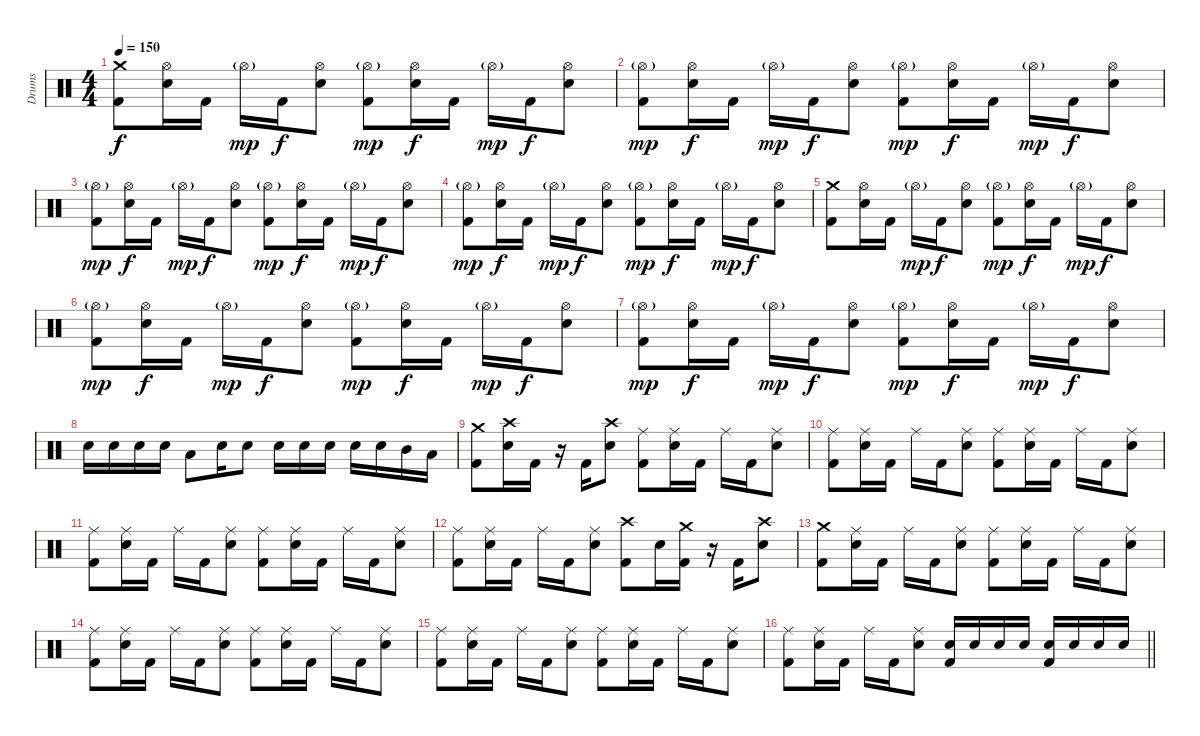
\track ("Drums" "Drums") {instrument percussion}
\staff {score}
\articulation defaults
\ts (4 4)
\tempo 150
\clef neutral
\ks c
("Crash medium (hit)" "Kick (hit) 2").8{dy f} ("Hi-Hat (open)" "Electric Snare (hit)").16 "Kick (hit) 2".16 "Hi-Hat (open)"{g}.16{dy mp} "Kick (hit) 2".16{dy f} ("Hi-Hat (open)" "Electric Snare (hit)").8 ("Hi-Hat (open)"{g} "Kick (hit) 2").8{dy mp} ("Hi-Hat (open)" "Electric Snare (hit)").16{dy f} "Kick (hit) 2".16 "Hi-Hat (open)"{g}.16{dy mp} "Kick (hit) 2".16{dy f} ("Hi-Hat (open)" "Electric Snare (hit)").8 |
("Hi-Hat (open)"{g} "Kick (hit) 2").8{dy mp} ("Hi-Hat (open)" "Electric Snare (hit)").16{dy f} "Kick (hit) 2".16 "Hi-Hat (open)"{g}.16{dy mp} "Kick (hit) 2".16{dy f} ("Hi-Hat (open)" "Electric Snare (hit)").8 ("Hi-Hat (open)"{g} "Kick (hit) 2").8{dy mp} ("Hi-Hat (open)" "Electric Snare (hit)").16{dy f} "Kick (hit) 2".16 "Hi-Hat (open)"{g}.16{dy mp} "Kick (hit) 2".16{dy f} ("Hi-Hat (open)" "Electric Snare (hit)").8 |
("Hi-Hat (open)"{g} "Kick (hit) 2").8{dy mp} ("Hi-Hat (open)" "Electric Snare (hit)").16{dy f} "Kick (hit) 2".16 "Hi-Hat (open)"{g}.16{dy mp} "Kick (hit) 2".16{dy f} ("Hi-Hat (open)" "Electric Snare (hit)").8 ("Hi-Hat (open)"{g} "Kick (hit) 2").8{dy mp} ("Hi-Hat (open)" "Electric Snare (hit)").16{dy f} "Kick (hit) 2".16 "Hi-Hat (open)"{g}.16{dy mp} "Kick (hit) 2".16{dy f} ("Hi-Hat (open)" "Electric Snare (hit)").8 |
("Hi-Hat (open)"{g} "Kick (hit) 2").8{dy mp} ("Hi-Hat (open)" "Electric Snare (hit)").16{dy f} "Kick (hit) 2".16 "Hi-Hat (open)"{g}.16{dy mp} "Kick (hit) 2".16{dy f} ("Hi-Hat (open)" "Electric Snare (hit)").8 ("Hi-Hat (open)"{g} "Kick (hit) 2").8{dy mp} ("Hi-Hat (open)" "Electric Snare (hit)").16{dy f} "Kick (hit) 2".16 "Hi-Hat (open)"{g}.16{dy mp} "Kick (hit) 2".16{dy f} ("Hi-Hat (open)" "Electric Snare (hit)").8 |
("Crash medium (hit)" "Kick (hit) 2").8 ("Hi-Hat (open)" "Electric Snare (hit)").16 "Kick (hit) 2".16 "Hi-Hat (open)"{g}.16{dy mp} "Kick (hit) 2".16{dy f} ("Hi-Hat (open)" "Electric Snare (hit)").8 ("Hi-Hat (open)"{g} "Kick (hit) 2").8{dy mp} ("Hi-Hat (open)" "Electric Snare (hit)").16{dy f} "Kick (hit) 2".16 "Hi-Hat (open)"{g}.16{dy mp} "Kick (hit) 2".16{dy f} ("Hi-Hat (open)" "Electric Snare (hit)").8 |
("Hi-Hat (open)"{g} "Kick (hit) 2").8{dy mp} ("Hi-Hat (open)" "Electric Snare (hit)").16{dy f} "Kick (hit) 2".16 "Hi-Hat (open)"{g}.16{dy mp} "Kick (hit) 2".16{dy f} ("Hi-Hat (open)" "Electric Snare (hit)").8 ("Hi-Hat (open)"{g} "Kick (hit) 2").8{dy mp} ("Hi-Hat (open)" "Electric Snare (hit)").16{dy f} "Kick (hit) 2".16 "Hi-Hat (open)"{g}.16{dy mp} "Kick (hit) 2".16{dy f} ("Hi-Hat (open)" "Electric Snare (hit)").8 |
("Hi-Hat (open)"{g} "Kick (hit) 2").8{dy mp} ("Hi-Hat (open)" "Electric Snare (hit)").16{dy f} "Kick (hit) 2".16 "Hi-Hat (open)"{g}.16{dy mp} "Kick (hit) 2".16{dy f} ("Hi-Hat (open)" "Electric Snare (hit)").8 ("Hi-Hat (open)"{g} "Kick (hit) 2").8{dy mp} ("Hi-Hat (open)" "Electric Snare (hit)").16{dy f} "Kick (hit) 2".16 "Hi-Hat (open)"{g}.16{dy mp} "Kick (hit) 2".16{dy f} ("Hi-Hat (open)" "Electric Snare (hit)").8 |
"Electric Snare (hit)".16 "Electric Snare (hit)".16 "Electric Snare (hit)".16 "Electric Snare (hit)".16 "Low Tom (hit)".8 "Electric Snare (hit)".16 "Electric Snare (hit)".8 "Electric Snare (hit)".16 "Electric Snare (hit)".16 "Electric Snare (hit)".16 "Electric Snare (hit)".16 "Electric Snare (hit)".16 "Mid Tom (hit)".16 "Low Tom (hit)".16 |
("Crash medium (hit)" "Kick (hit) 2").8 ("Crash high (hit)" "Electric Snare (hit)").16 "Kick (hit) 2".16 r.16 "Kick (hit) 2".16 ("Crash high (hit)" "Electric Snare (hit)").8 ("Ride (middle)" "Kick (hit) 2").8 ("Ride (middle)" "Electric Snare (hit)").16 "Kick (hit) 2".16 "Ride (middle)".16 "Kick (hit) 2".16 ("Ride (middle)" "Electric Snare (hit)").8 |
("Ride (middle)" "Kick (hit) 2").8 ("Ride (middle)" "Electric Snare (hit)").16 "Kick (hit) 2".16 "Ride (middle)".16 "Kick (hit) 2".16 ("Ride (middle)" "Electric Snare (hit)").8 ("Ride (middle)" "Kick (hit) 2").8 ("Ride (middle)" "Electric Snare (hit)").16 "Kick (hit) 2".16 "Ride (middle)".16 "Kick (hit) 2".16 ("Ride (middle)" "Electric Snare (hit)").8 |
("Ride (middle)" "Kick (hit) 2").8 ("Ride (middle)" "Electric Snare (hit)").16 "Kick (hit) 2".16 "Ride (middle)".16 "Kick (hit) 2".16 ("Ride (middle)" "Electric Snare (hit)").8 ("Ride (middle)" "Kick (hit) 2").8 ("Ride (middle)" "Electric Snare (hit)").16 "Kick (hit) 2".16 "Ride (middle)".16 "Kick (hit) 2".16 ("Ride (middle)" "Electric Snare (hit)").8 |
("Ride (middle)" "Kick (hit) 2").8 ("Ride (middle)" "Electric Snare (hit)").16 "Kick (hit) 2".16 "Ride (middle)".16 "Kick (hit) 2".16 ("Ride (middle)" "Electric Snare (hit)").8 ("Crash high (hit)" "Kick (hit) 2").8 "Electric Snare (hit)".16 ("Crash medium (hit)" "Kick (hit) 2").16 r.16 "Kick (hit) 2".16 ("Crash high (hit)" "Electric Snare (hit)").8 |
("Crash medium (hit)" "Kick (hit) 2").8 ("Ride (middle)" "Electric Snare (hit)").16 "Kick (hit) 2".16 "Ride (middle)".16 "Kick (hit) 2".16 ("Ride (middle)" "Electric Snare (hit)").8 ("Ride (middle)" "Kick (hit) 2").8 ("Ride (middle)" "Electric Snare (hit)").16 "Kick (hit) 2".16 "Ride (middle)".16 "Kick (hit) 2".16 ("Ride (middle)" "Electric Snare (hit)").8 |
("Ride (middle)" "Kick (hit) 2").8 ("Ride (middle)" "Electric Snare (hit)").16 "Kick (hit) 2".16 "Ride (middle)".16 "Kick (hit) 2".16 ("Ride (middle)" "Electric Snare (hit)").8 ("Ride (middle)" "Kick (hit) 2").8 ("Ride (middle)" "Electric Snare (hit)").16 "Kick (hit) 2".16 "Ride (middle)".16 "Kick (hit) 2".16 ("Ride (middle)" "Electric Snare (hit)").8 |
("Ride (middle)" "Kick (hit) 2").8 ("Ride (middle)" "Electric Snare (hit)").16 "Kick (hit) 2".16 "Ride (middle)".16 "Kick (hit) 2".16 ("Ride (middle)" "Electric Snare (hit)").8 ("Ride (middle)" "Kick (hit) 2").8 ("Ride (middle)" "Electric Snare (hit)").16 "Kick (hit) 2".16 "Ride (middle)".16 "Kick (hit) 2".16 ("Ride (middle)" "Electric Snare (hit)").8 |
\barLineRight lightlight
("Ride (middle)" "Kick (hit) 2").8 ("Ride (middle)" "Electric Snare (hit)").16 "Kick (hit) 2".16 "Ride (middle)".16 "Kick (hit) 2".16 ("Ride (middle)" "Electric Snare (hit)").8 ("Electric Snare (hit)" "Kick (hit) 2").16 "Electric Snare (hit)".16 "Electric Snare (hit)".16 "Electric Snare (hit)".16 ("Electric Snare (hit)" "Kick (hit) 2").16 "Electric Snare (hit)".16 "Electric Snare (hit)".16 "Electric Snare (hit)".16
